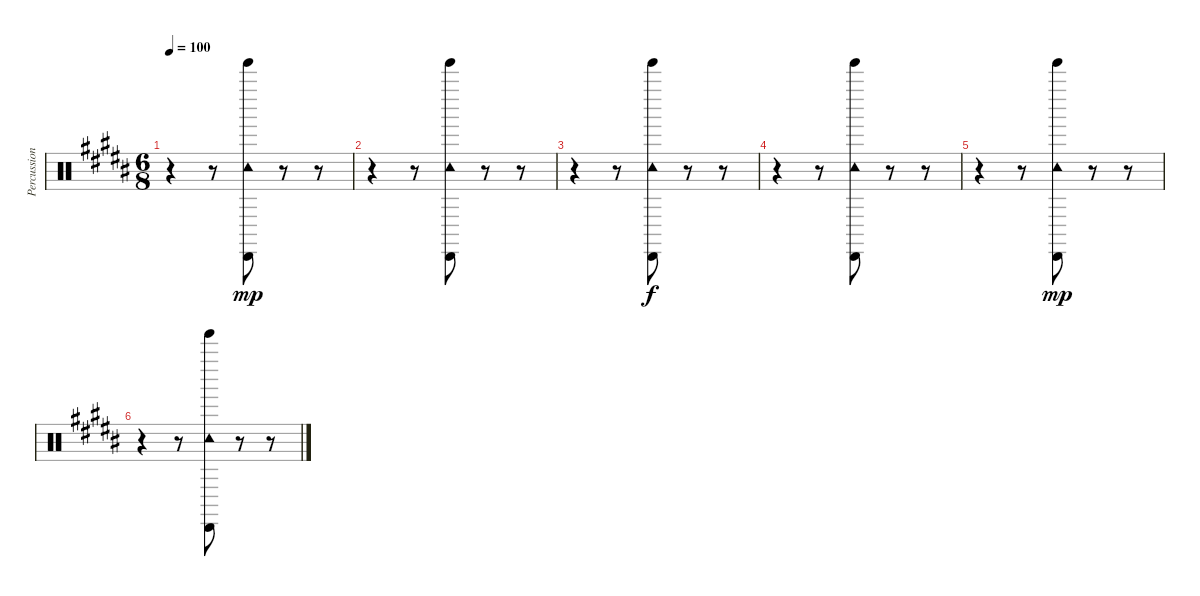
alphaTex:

\track ("Percussion" "Percussion") {instrument percussion}
\staff {score}
\articulation defaults
\ts (6 8)
\tempo 100
\clef neutral
\ks b
r.4{dy f} r.8 ("Tambourine (hit)" "Cabasa (hit)" "Tinkle Bell (hit)").8{dy mp} r.8 r.8 |
r.4 r.8 ("Tambourine (hit)" "Cabasa (hit)" "Tinkle Bell (hit)").8 r.8 r.8 |
r.4 r.8 ("Tambourine (hit)" "Cabasa (hit)" "Tinkle Bell (hit)").8{dy f} r.8 r.8 |
r.4 r.8 ("Tambourine (hit)" "Cabasa (hit)" "Tinkle Bell (hit)").8 r.8 r.8 |
r.4 r.8 ("Tambourine (hit)" "Cabasa (hit)" "Tinkle Bell (hit)").8{dy mp} r.8 r.8 |
r.4 r.8 ("Tambourine (hit)" "Cabasa (hit)" "Tinkle Bell (hit)").8 r.8 r.8
